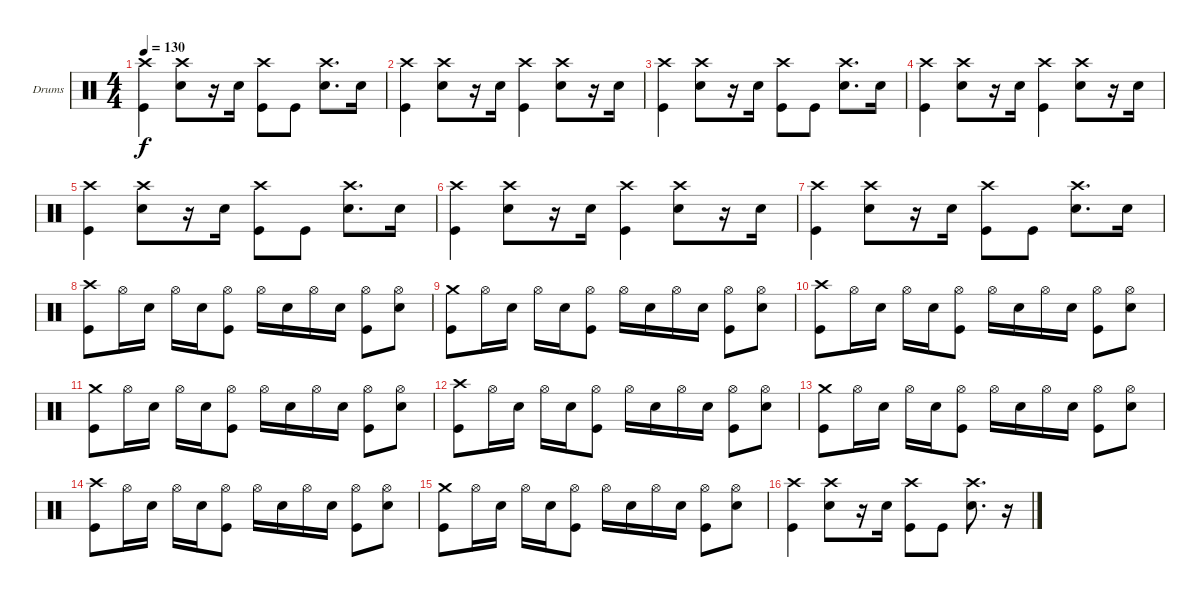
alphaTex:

\bracketExtendMode groupsimilarinstruments
\firstSystemTrackNameOrientation horizontal
\otherSystemsTrackNameOrientation horizontal
\track ("Drumkit" "Drums") {instrument percussion}
\staff {score}
\articulation defaults
\ts (4 4)
\tempo 130
\clef neutral
\ks c
("Kick (hit)" "Crash high (hit)").4{dy f} ("Snare (hit) 2" "Crash high (hit)").8 r.16 "Snare (hit) 2".16 ("Kick (hit)" "Crash high (hit)").8 "Kick (hit)".8 ("Snare (hit) 2" "Crash high (hit)").8{d} "Snare (hit) 2".16 |
("Kick (hit)" "Crash high (hit)").4 ("Snare (hit) 2" "Crash high (hit)").8 r.16 "Snare (hit) 2".16 ("Kick (hit)" "Crash high (hit)").4 ("Snare (hit) 2" "Crash high (hit)").8 r.16 "Snare (hit) 2".16 |
("Kick (hit)" "Crash high (hit)").4 ("Snare (hit) 2" "Crash high (hit)").8 r.16 "Snare (hit) 2".16 ("Kick (hit)" "Crash high (hit)").8 "Kick (hit)".8 ("Snare (hit) 2" "Crash high (hit)").8{d} "Snare (hit) 2".16 |
("Kick (hit)" "Crash high (hit)").4 ("Snare (hit) 2" "Crash high (hit)").8 r.16 "Snare (hit) 2".16 ("Kick (hit)" "Crash high (hit)").4 ("Snare (hit) 2" "Crash high (hit)").8 r.16 "Snare (hit) 2".16 |
("Kick (hit)" "Crash high (hit)").4 ("Snare (hit) 2" "Crash high (hit)").8 r.16 "Snare (hit) 2".16 ("Kick (hit)" "Crash high (hit)").8 "Kick (hit)".8 ("Snare (hit) 2" "Crash high (hit)").8{d} "Snare (hit) 2".16 |
("Kick (hit)" "Crash high (hit)").4 ("Snare (hit) 2" "Crash high (hit)").8 r.16 "Snare (hit) 2".16 ("Kick (hit)" "Crash high (hit)").4 ("Snare (hit) 2" "Crash high (hit)").8 r.16 "Snare (hit) 2".16 |
("Kick (hit)" "Crash high (hit)").4 ("Snare (hit) 2" "Crash high (hit)").8 r.16 "Snare (hit) 2".16 ("Kick (hit)" "Crash high (hit)").8 "Kick (hit)".8 ("Snare (hit) 2" "Crash high (hit)").8{d} "Snare (hit) 2".16 |
("Kick (hit)" "Crash high (hit)").8 "Hi-Hat (open)".16 "Snare (hit) 2".16 "Hi-Hat (open)".16 "Snare (hit) 2".16 ("Kick (hit)" "Hi-Hat (open)").8 "Hi-Hat (open)".16 "Snare (hit) 2".16 "Hi-Hat (open)".16 "Snare (hit) 2".16 ("Kick (hit)" "Hi-Hat (open)").8 ("Snare (hit) 2" "Hi-Hat (open)").8 |
("Kick (hit)" "Crash medium (hit)").8 "Hi-Hat (open)".16 "Snare (hit) 2".16 "Hi-Hat (open)".16 "Snare (hit) 2".16 ("Kick (hit)" "Hi-Hat (open)").8 "Hi-Hat (open)".16 "Snare (hit) 2".16 "Hi-Hat (open)".16 "Snare (hit) 2".16 ("Kick (hit)" "Hi-Hat (open)").8 ("Snare (hit) 2" "Hi-Hat (open)").8 |
("Kick (hit)" "Crash high (hit)").8 "Hi-Hat (open)".16 "Snare (hit) 2".16 "Hi-Hat (open)".16 "Snare (hit) 2".16 ("Kick (hit)" "Hi-Hat (open)").8 "Hi-Hat (open)".16 "Snare (hit) 2".16 "Hi-Hat (open)".16 "Snare (hit) 2".16 ("Kick (hit)" "Hi-Hat (open)").8 ("Snare (hit) 2" "Hi-Hat (open)").8 |
("Kick (hit)" "Crash medium (hit)").8 "Hi-Hat (open)".16 "Snare (hit) 2".16 "Hi-Hat (open)".16 "Snare (hit) 2".16 ("Kick (hit)" "Hi-Hat (open)").8 "Hi-Hat (open)".16 "Snare (hit) 2".16 "Hi-Hat (open)".16 "Snare (hit) 2".16 ("Kick (hit)" "Hi-Hat (open)").8 ("Snare (hit) 2" "Hi-Hat (open)").8 |
("Kick (hit)" "Crash high (hit)").8 "Hi-Hat (open)".16 "Snare (hit) 2".16 "Hi-Hat (open)".16 "Snare (hit) 2".16 ("Kick (hit)" "Hi-Hat (open)").8 "Hi-Hat (open)".16 "Snare (hit) 2".16 "Hi-Hat (open)".16 "Snare (hit) 2".16 ("Kick (hit)" "Hi-Hat (open)").8 ("Snare (hit) 2" "Hi-Hat (open)").8 |
("Kick (hit)" "Crash medium (hit)").8 "Hi-Hat (open)".16 "Snare (hit) 2".16 "Hi-Hat (open)".16 "Snare (hit) 2".16 ("Kick (hit)" "Hi-Hat (open)").8 "Hi-Hat (open)".16 "Snare (hit) 2".16 "Hi-Hat (open)".16 "Snare (hit) 2".16 ("Kick (hit)" "Hi-Hat (open)").8 ("Snare (hit) 2" "Hi-Hat (open)").8 |
("Kick (hit)" "Crash high (hit)").8 "Hi-Hat (open)".16 "Snare (hit) 2".16 "Hi-Hat (open)".16 "Snare (hit) 2".16 ("Kick (hit)" "Hi-Hat (open)").8 "Hi-Hat (open)".16 "Snare (hit) 2".16 "Hi-Hat (open)".16 "Snare (hit) 2".16 ("Kick (hit)" "Hi-Hat (open)").8 ("Snare (hit) 2" "Hi-Hat (open)").8 |
("Kick (hit)" "Crash medium (hit)").8 "Hi-Hat (open)".16 "Snare (hit) 2".16 "Hi-Hat (open)".16 "Snare (hit) 2".16 ("Kick (hit)" "Hi-Hat (open)").8 "Hi-Hat (open)".16 "Snare (hit) 2".16 "Hi-Hat (open)".16 "Snare (hit) 2".16 ("Kick (hit)" "Hi-Hat (open)").8 ("Snare (hit) 2" "Hi-Hat (open)").8 |
("Kick (hit)" "Crash high (hit)").4 ("Snare (hit) 2" "Crash high (hit)").8 r.16 "Snare (hit) 2".16 ("Kick (hit)" "Crash high (hit)").8 "Kick (hit)".8 ("Snare (hit) 2" "Crash high (hit)").8{d} r.16
